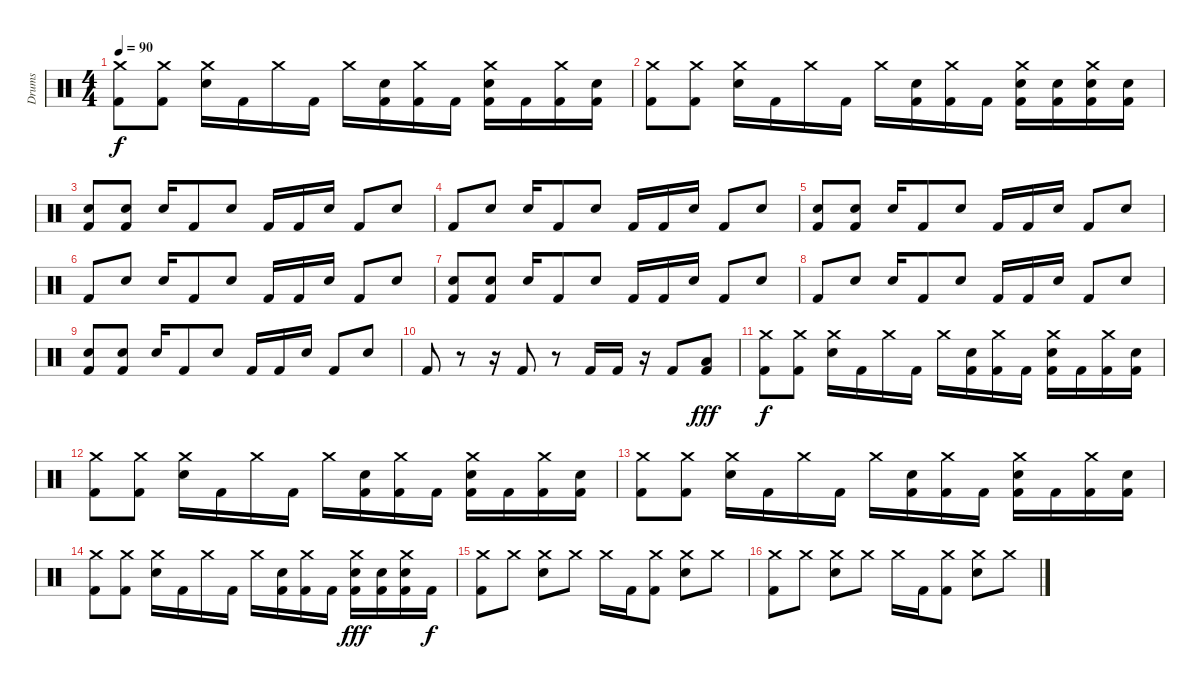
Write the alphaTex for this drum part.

\track ("Drums" "Drums") {instrument percussion}
\staff {score}
\articulation defaults
\ts (4 4)
\tempo 90
\clef neutral
\ks c
("Crash medium (hit)" "Kick (hit) 2").8{dy f} ("Crash medium (hit)" "Kick (hit) 2").8 ("Crash medium (hit)" "Snare (hit) 2").16 "Kick (hit) 2".16 "Crash medium (hit)".16 "Kick (hit) 2".16 "Crash medium (hit)".16 ("Snare (hit) 2" "Kick (hit) 2").16 ("Crash medium (hit)" "Kick (hit) 2").16 "Kick (hit) 2".16 ("Crash medium (hit)" "Snare (hit) 2" "Kick (hit) 2").16 "Kick (hit) 2".16 ("Crash medium (hit)" "Kick (hit) 2").16 ("Snare (hit) 2" "Kick (hit) 2").16 |
("Crash medium (hit)" "Kick (hit) 2").8 ("Crash medium (hit)" "Kick (hit) 2").8 ("Crash medium (hit)" "Snare (hit) 2").16 "Kick (hit) 2".16 "Crash medium (hit)".16 "Kick (hit) 2".16 "Crash medium (hit)".16 ("Snare (hit) 2" "Kick (hit) 2").16 ("Crash medium (hit)" "Kick (hit) 2").16 "Kick (hit) 2".16 ("Crash medium (hit)" "Snare (hit) 2" "Kick (hit) 2").16 ("Snare (hit) 2" "Kick (hit) 2").16 ("Crash medium (hit)" "Snare (hit) 2" "Kick (hit) 2").16 ("Snare (hit) 2" "Kick (hit) 2").16 |
("Snare (hit) 2" "Kick (hit) 2").8 ("Snare (hit) 2" "Kick (hit) 2").8 "Snare (hit) 2".16 "Kick (hit) 2".8 "Snare (hit) 2".8 "Kick (hit) 2".16 "Kick (hit) 2".16 "Snare (hit) 2".16 "Kick (hit) 2".8 "Snare (hit) 2".8 |
"Kick (hit) 2".8 "Snare (hit) 2".8 "Snare (hit) 2".16 "Kick (hit) 2".8 "Snare (hit) 2".8 "Kick (hit) 2".16 "Kick (hit) 2".16 "Snare (hit) 2".16 "Kick (hit) 2".8 "Snare (hit) 2".8 |
("Snare (hit) 2" "Kick (hit) 2").8 ("Snare (hit) 2" "Kick (hit) 2").8 "Snare (hit) 2".16 "Kick (hit) 2".8 "Snare (hit) 2".8 "Kick (hit) 2".16 "Kick (hit) 2".16 "Snare (hit) 2".16 "Kick (hit) 2".8 "Snare (hit) 2".8 |
"Kick (hit) 2".8 "Snare (hit) 2".8 "Snare (hit) 2".16 "Kick (hit) 2".8 "Snare (hit) 2".8 "Kick (hit) 2".16 "Kick (hit) 2".16 "Snare (hit) 2".16 "Kick (hit) 2".8 "Snare (hit) 2".8 |
("Snare (hit) 2" "Kick (hit) 2").8 ("Snare (hit) 2" "Kick (hit) 2").8 "Snare (hit) 2".16 "Kick (hit) 2".8 "Snare (hit) 2".8 "Kick (hit) 2".16 "Kick (hit) 2".16 "Snare (hit) 2".16 "Kick (hit) 2".8 "Snare (hit) 2".8 |
"Kick (hit) 2".8 "Snare (hit) 2".8 "Snare (hit) 2".16 "Kick (hit) 2".8 "Snare (hit) 2".8 "Kick (hit) 2".16 "Kick (hit) 2".16 "Snare (hit) 2".16 "Kick (hit) 2".8 "Snare (hit) 2".8 |
("Snare (hit) 2" "Kick (hit) 2").8 ("Snare (hit) 2" "Kick (hit) 2").8 "Snare (hit) 2".16 "Kick (hit) 2".8 "Snare (hit) 2".8 "Kick (hit) 2".16 "Kick (hit) 2".16 "Snare (hit) 2".16 "Kick (hit) 2".8 "Snare (hit) 2".8 |
"Kick (hit) 2".8 r.8 r.16 "Kick (hit) 2".8 r.8 "Kick (hit) 2".16 "Kick (hit) 2".16 r.16 "Kick (hit) 2".8 ("Low Tom (hit)" "Kick (hit) 2").8{dy fff} |
("Crash medium (hit)" "Kick (hit) 2").8{dy f} ("Crash medium (hit)" "Kick (hit) 2").8 ("Crash medium (hit)" "Snare (hit) 2").16 "Kick (hit) 2".16 "Crash medium (hit)".16 "Kick (hit) 2".16 "Crash medium (hit)".16 ("Snare (hit) 2" "Kick (hit) 2").16 ("Crash medium (hit)" "Kick (hit) 2").16 "Kick (hit) 2".16 ("Crash medium (hit)" "Snare (hit) 2" "Kick (hit) 2").16 "Kick (hit) 2".16 ("Crash medium (hit)" "Kick (hit) 2").16 ("Snare (hit) 2" "Kick (hit) 2").16 |
("Crash medium (hit)" "Kick (hit) 2").8 ("Crash medium (hit)" "Kick (hit) 2").8 ("Crash medium (hit)" "Snare (hit) 2").16 "Kick (hit) 2".16 "Crash medium (hit)".16 "Kick (hit) 2".16 "Crash medium (hit)".16 ("Snare (hit) 2" "Kick (hit) 2").16 ("Crash medium (hit)" "Kick (hit) 2").16 "Kick (hit) 2".16 ("Crash medium (hit)" "Snare (hit) 2" "Kick (hit) 2").16 "Kick (hit) 2".16 ("Crash medium (hit)" "Kick (hit) 2").16 ("Snare (hit) 2" "Kick (hit) 2").16 |
("Crash medium (hit)" "Kick (hit) 2").8 ("Crash medium (hit)" "Kick (hit) 2").8 ("Crash medium (hit)" "Snare (hit) 2").16 "Kick (hit) 2".16 "Crash medium (hit)".16 "Kick (hit) 2".16 "Crash medium (hit)".16 ("Snare (hit) 2" "Kick (hit) 2").16 ("Crash medium (hit)" "Kick (hit) 2").16 "Kick (hit) 2".16 ("Crash medium (hit)" "Snare (hit) 2" "Kick (hit) 2").16 "Kick (hit) 2".16 ("Crash medium (hit)" "Kick (hit) 2").16 ("Snare (hit) 2" "Kick (hit) 2").16 |
("Crash medium (hit)" "Kick (hit) 2").8 ("Crash medium (hit)" "Kick (hit) 2").8 ("Crash medium (hit)" "Snare (hit) 2").16 "Kick (hit) 2".16 "Crash medium (hit)".16 "Kick (hit) 2".16 "Crash medium (hit)".16 ("Snare (hit) 2" "Kick (hit) 2").16 ("Crash medium (hit)" "Kick (hit) 2").16 "Kick (hit) 2".16 ("Crash medium (hit)" "Snare (hit) 2" "Kick (hit) 2").16{dy fff} ("Snare (hit) 2" "Kick (hit) 2").16 ("Crash medium (hit)" "Snare (hit) 2" "Kick (hit) 2").16 "Kick (hit) 2".16{dy f} |
("Crash medium (hit)" "Kick (hit) 2").8 "Crash medium (hit)".8 ("Crash medium (hit)" "Snare (hit) 2").8 "Crash medium (hit)".8 "Crash medium (hit)".16 "Kick (hit) 2".16 ("Crash medium (hit)" "Kick (hit) 2").8 ("Crash medium (hit)" "Snare (hit) 2").8 "Crash medium (hit)".8 |
("Crash medium (hit)" "Kick (hit) 2").8 "Crash medium (hit)".8 ("Crash medium (hit)" "Snare (hit) 2").8 "Crash medium (hit)".8 "Crash medium (hit)".16 "Kick (hit) 2".16 ("Crash medium (hit)" "Kick (hit) 2").8 ("Crash medium (hit)" "Snare (hit) 2").8 "Crash medium (hit)".8
